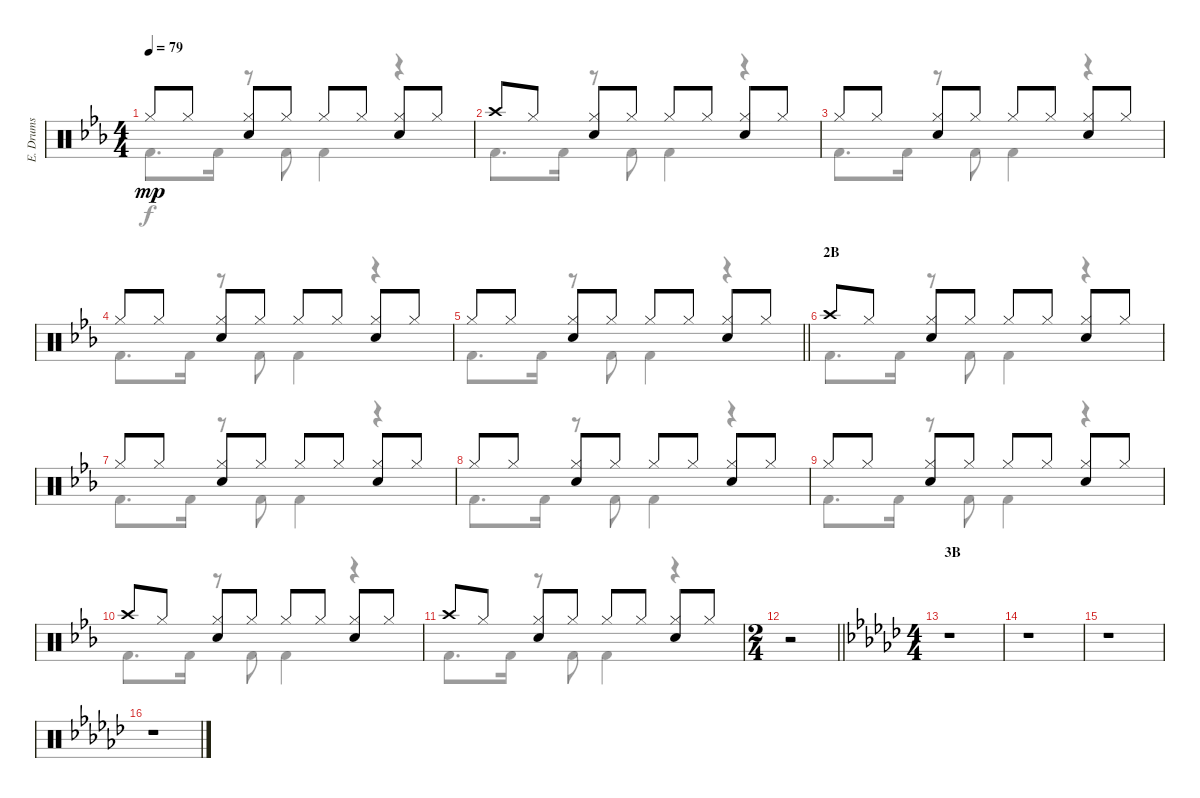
\track ("E. Drums" "E. Drums") {instrument percussion}
\staff {score}
\articulation defaults
\voice
\ts (4 4)
\tempo 79
\clef neutral
\ks eb "Hi-Hat (closed)".8{dy mp} "Hi-Hat (closed)".8
("Hi-Hat (closed)" "Electric Snare (hit)").8 "Hi-Hat (closed)".8 "Hi-Hat (closed)".8 "Hi-Hat (closed)".8 ("Hi-Hat (closed)" "Electric Snare (hit)").8 "Hi-Hat (closed)".8 |
"Crash high (hit)".8 "Hi-Hat (closed)".8 ("Hi-Hat (closed)" "Electric Snare (hit)").8 "Hi-Hat (closed)".8 "Hi-Hat (closed)".8 "Hi-Hat (closed)".8 ("Hi-Hat (closed)" "Electric Snare (hit)").8 "Hi-Hat (closed)".8 |
"Hi-Hat (closed)".8 "Hi-Hat (closed)".8 ("Hi-Hat (closed)" "Electric Snare (hit)").8 "Hi-Hat (closed)".8 "Hi-Hat (closed)".8 "Hi-Hat (closed)".8 ("Hi-Hat (closed)" "Electric Snare (hit)").8 "Hi-Hat (closed)".8 |
"Hi-Hat (closed)".8 "Hi-Hat (closed)".8 ("Hi-Hat (closed)" "Electric Snare (hit)").8 "Hi-Hat (closed)".8 "Hi-Hat (closed)".8 "Hi-Hat (closed)".8 ("Hi-Hat (closed)" "Electric Snare (hit)").8 "Hi-Hat (closed)".8 |
\barLineRight lightlight "Hi-Hat (closed)".8 "Hi-Hat (closed)".8
("Hi-Hat (closed)" "Electric Snare (hit)").8 "Hi-Hat (closed)".8 "Hi-Hat (closed)".8 "Hi-Hat (closed)".8 ("Hi-Hat (closed)" "Electric Snare (hit)").8 "Hi-Hat (closed)".8 |
\section ("" "2B")
"Crash high (hit)".8 "Hi-Hat (closed)".8 ("Hi-Hat (closed)" "Electric Snare (hit)").8 "Hi-Hat (closed)".8 "Hi-Hat (closed)".8 "Hi-Hat (closed)".8 ("Hi-Hat (closed)" "Electric Snare (hit)").8 "Hi-Hat (closed)".8 |
"Hi-Hat (closed)".8 "Hi-Hat (closed)".8 ("Hi-Hat (closed)" "Electric Snare (hit)").8 "Hi-Hat (closed)".8 "Hi-Hat (closed)".8 "Hi-Hat (closed)".8 ("Hi-Hat (closed)" "Electric Snare (hit)").8 "Hi-Hat (closed)".8 |
"Hi-Hat (closed)".8 "Hi-Hat (closed)".8 ("Hi-Hat (closed)" "Electric Snare (hit)").8 "Hi-Hat (closed)".8 "Hi-Hat (closed)".8 "Hi-Hat (closed)".8 ("Hi-Hat (closed)" "Electric Snare (hit)").8 "Hi-Hat (closed)".8 |
"Hi-Hat (closed)".8 "Hi-Hat (closed)".8 ("Hi-Hat (closed)" "Electric Snare (hit)").8 "Hi-Hat (closed)".8 "Hi-Hat (closed)".8 "Hi-Hat (closed)".8 ("Hi-Hat (closed)" "Electric Snare (hit)").8 "Hi-Hat (closed)".8 |
"Crash high (hit)".8 "Hi-Hat (closed)".8 ("Hi-Hat (closed)" "Electric Snare (hit)").8 "Hi-Hat (closed)".8 "Hi-Hat (closed)".8 "Hi-Hat (closed)".8 ("Hi-Hat (closed)" "Electric Snare (hit)").8 "Hi-Hat (closed)".8 |
"Crash high (hit)".8 "Hi-Hat (closed)".8 ("Hi-Hat (closed)" "Electric Snare (hit)").8 "Hi-Hat (closed)".8 "Hi-Hat (closed)".8 "Hi-Hat (closed)".8 ("Hi-Hat (closed)" "Electric Snare (hit)").8 "Hi-Hat (closed)".8 |
\ts (2 4)
\barLineRight lightlight
r.2 |
\ts (4 4)
\section ("" "3B")
\ks gb
r.1 |
r.1 |
r.1 |
r.1
\voice
\clef neutral
\ottava regular
\simile none
\ks eb "Kick (hit) 2".8{d dy f} "Kick (hit) 2".16
r.8 "Kick (hit) 2".8 "Kick (hit) 2".4 r.4 |
"Kick (hit) 2".8{d} "Kick (hit) 2".16 r.8 "Kick (hit) 2".8 "Kick (hit) 2".4 r.4 |
"Kick (hit) 2".8{d} "Kick (hit) 2".16 r.8 "Kick (hit) 2".8 "Kick (hit) 2".4 r.4 |
"Kick (hit) 2".8{d} "Kick (hit) 2".16 r.8 "Kick (hit) 2".8 "Kick (hit) 2".4 r.4 |
\barLineRight lightlight "Kick (hit) 2".8{d} "Kick (hit) 2".16
r.8 "Kick (hit) 2".8 "Kick (hit) 2".4 r.4 |
"Kick (hit) 2".8{d} "Kick (hit) 2".16 r.8 "Kick (hit) 2".8 "Kick (hit) 2".4 r.4 |
"Kick (hit) 2".8{d} "Kick (hit) 2".16 r.8 "Kick (hit) 2".8 "Kick (hit) 2".4 r.4 |
"Kick (hit) 2".8{d} "Kick (hit) 2".16 r.8 "Kick (hit) 2".8 "Kick (hit) 2".4 r.4 |
"Kick (hit) 2".8{d} "Kick (hit) 2".16 r.8 "Kick (hit) 2".8 "Kick (hit) 2".4 r.4 |
"Kick (hit) 2".8{d} "Kick (hit) 2".16 r.8 "Kick (hit) 2".8 "Kick (hit) 2".4 r.4 |
"Kick (hit) 2".8{d} "Kick (hit) 2".16 r.8 "Kick (hit) 2".8 "Kick (hit) 2".4 r.4 |
\barLineRight lightlight
r.2 |
\ks gb
r.1 |
r.1 |
r.1 |
r.1
